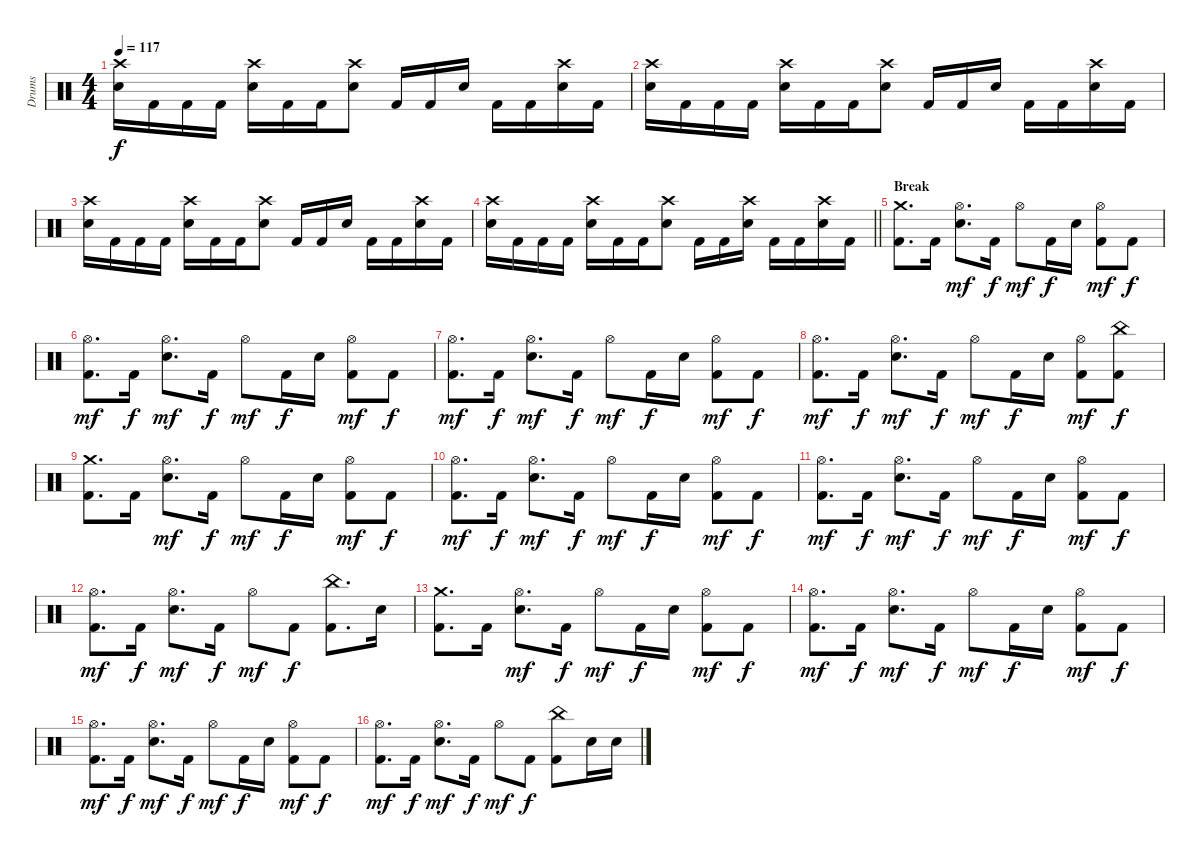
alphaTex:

\track ("Drums" "Drums") {instrument percussion}
\staff {score}
\articulation defaults
\ts (4 4)
\tempo 117
\clef neutral
\ks c
("Crash high (hit)" "Electric Snare (hit)").16{dy f} "Kick (hit) 2".16 "Kick (hit) 2".16 "Kick (hit) 2".16 ("Crash high (hit)" "Electric Snare (hit)").16 "Kick (hit) 2".16 "Kick (hit) 2".16 ("Crash high (hit)" "Electric Snare (hit)").8 "Kick (hit) 2".16 "Kick (hit) 2".16 "Electric Snare (hit)".16 "Kick (hit) 2".16 "Kick (hit) 2".16 ("Crash high (hit)" "Electric Snare (hit)").16 "Kick (hit) 2".16 |
("Crash high (hit)" "Electric Snare (hit)").16 "Kick (hit) 2".16 "Kick (hit) 2".16 "Kick (hit) 2".16 ("Crash high (hit)" "Electric Snare (hit)").16 "Kick (hit) 2".16 "Kick (hit) 2".16 ("Crash high (hit)" "Electric Snare (hit)").8 "Kick (hit) 2".16 "Kick (hit) 2".16 "Electric Snare (hit)".16 "Kick (hit) 2".16 "Kick (hit) 2".16 ("Crash high (hit)" "Electric Snare (hit)").16 "Kick (hit) 2".16 |
("Crash high (hit)" "Electric Snare (hit)").16 "Kick (hit) 2".16 "Kick (hit) 2".16 "Kick (hit) 2".16 ("Crash high (hit)" "Electric Snare (hit)").16 "Kick (hit) 2".16 "Kick (hit) 2".16 ("Crash high (hit)" "Electric Snare (hit)").8 "Kick (hit) 2".16 "Kick (hit) 2".16 "Electric Snare (hit)".16 "Kick (hit) 2".16 "Kick (hit) 2".16 ("Crash high (hit)" "Electric Snare (hit)").16 "Kick (hit) 2".16 |
\barLineRight lightlight
("Crash high (hit)" "Electric Snare (hit)").16 "Kick (hit) 2".16 "Kick (hit) 2".16 "Kick (hit) 2".16 ("Crash high (hit)" "Electric Snare (hit)").16 "Kick (hit) 2".16 "Kick (hit) 2".16 ("Crash high (hit)" "Electric Snare (hit)").8 "Kick (hit) 2".16 "Kick (hit) 2".16 ("Crash high (hit)" "Electric Snare (hit)").16 "Kick (hit) 2".16 "Kick (hit) 2".16 ("Crash high (hit)" "Electric Snare (hit)").16 "Kick (hit) 2".16 |
\section ("" "Break")
("Kick (hit) 2" "Crash medium (hit)").8{d} "Kick (hit) 2".16 ("Hi-Hat (open)" "Electric Snare (hit)").8{d dy mf} "Kick (hit) 2".16{dy f} "Hi-Hat (open)".8{dy mf} "Kick (hit) 2".16{dy f} "Electric Snare (hit)".16 ("Kick (hit) 2" "Hi-Hat (open)").8{dy mf} "Kick (hit) 2".8{dy f} |
("Kick (hit) 2" "Hi-Hat (open)").8{d dy mf} "Kick (hit) 2".16{dy f} ("Hi-Hat (open)" "Electric Snare (hit)").8{d dy mf} "Kick (hit) 2".16{dy f} "Hi-Hat (open)".8{dy mf} "Kick (hit) 2".16{dy f} "Electric Snare (hit)".16 ("Kick (hit) 2" "Hi-Hat (open)").8{dy mf} "Kick (hit) 2".8{dy f} |
("Kick (hit) 2" "Hi-Hat (open)").8{d dy mf} "Kick (hit) 2".16{dy f} ("Hi-Hat (open)" "Electric Snare (hit)").8{d dy mf} "Kick (hit) 2".16{dy f} "Hi-Hat (open)".8{dy mf} "Kick (hit) 2".16{dy f} "Electric Snare (hit)".16 ("Kick (hit) 2" "Hi-Hat (open)").8{dy mf} "Kick (hit) 2".8{dy f} |
("Kick (hit) 2" "Hi-Hat (open)").8{d dy mf} "Kick (hit) 2".16{dy f} ("Hi-Hat (open)" "Electric Snare (hit)").8{d dy mf} "Kick (hit) 2".16{dy f} "Hi-Hat (open)".8{dy mf} "Kick (hit) 2".16{dy f} "Electric Snare (hit)".16 ("Kick (hit) 2" "Hi-Hat (open)").8{dy mf} ("Kick (hit) 2" "China (hit)").8{dy f} |
("Kick (hit) 2" "Crash medium (hit)").8{d} "Kick (hit) 2".16 ("Hi-Hat (open)" "Electric Snare (hit)").8{d dy mf} "Kick (hit) 2".16{dy f} "Hi-Hat (open)".8{dy mf} "Kick (hit) 2".16{dy f} "Electric Snare (hit)".16 ("Kick (hit) 2" "Hi-Hat (open)").8{dy mf} "Kick (hit) 2".8{dy f} |
("Kick (hit) 2" "Hi-Hat (open)").8{d dy mf} "Kick (hit) 2".16{dy f} ("Hi-Hat (open)" "Electric Snare (hit)").8{d dy mf} "Kick (hit) 2".16{dy f} "Hi-Hat (open)".8{dy mf} "Kick (hit) 2".16{dy f} "Electric Snare (hit)".16 ("Kick (hit) 2" "Hi-Hat (open)").8{dy mf} "Kick (hit) 2".8{dy f} |
("Kick (hit) 2" "Hi-Hat (open)").8{d dy mf} "Kick (hit) 2".16{dy f} ("Hi-Hat (open)" "Electric Snare (hit)").8{d dy mf} "Kick (hit) 2".16{dy f} "Hi-Hat (open)".8{dy mf} "Kick (hit) 2".16{dy f} "Electric Snare (hit)".16 ("Kick (hit) 2" "Hi-Hat (open)").8{dy mf} "Kick (hit) 2".8{dy f} |
("Kick (hit) 2" "Hi-Hat (open)").8{d dy mf} "Kick (hit) 2".16{dy f} ("Hi-Hat (open)" "Electric Snare (hit)").8{d dy mf} "Kick (hit) 2".16{dy f} "Hi-Hat (open)".8{dy mf} "Kick (hit) 2".8{dy f} ("Kick (hit) 2" "China (hit)").8{d} "Electric Snare (hit)".16 |
("Kick (hit) 2" "Crash medium (hit)").8{d} "Kick (hit) 2".16 ("Hi-Hat (open)" "Electric Snare (hit)").8{d dy mf} "Kick (hit) 2".16{dy f} "Hi-Hat (open)".8{dy mf} "Kick (hit) 2".16{dy f} "Electric Snare (hit)".16 ("Kick (hit) 2" "Hi-Hat (open)").8{dy mf} "Kick (hit) 2".8{dy f} |
("Kick (hit) 2" "Hi-Hat (open)").8{d dy mf} "Kick (hit) 2".16{dy f} ("Hi-Hat (open)" "Electric Snare (hit)").8{d dy mf} "Kick (hit) 2".16{dy f} "Hi-Hat (open)".8{dy mf} "Kick (hit) 2".16{dy f} "Electric Snare (hit)".16 ("Kick (hit) 2" "Hi-Hat (open)").8{dy mf} "Kick (hit) 2".8{dy f} |
("Kick (hit) 2" "Hi-Hat (open)").8{d dy mf} "Kick (hit) 2".16{dy f} ("Hi-Hat (open)" "Electric Snare (hit)").8{d dy mf} "Kick (hit) 2".16{dy f} "Hi-Hat (open)".8{dy mf} "Kick (hit) 2".16{dy f} "Electric Snare (hit)".16 ("Kick (hit) 2" "Hi-Hat (open)").8{dy mf} "Kick (hit) 2".8{dy f} |
("Kick (hit) 2" "Hi-Hat (open)").8{d dy mf} "Kick (hit) 2".16{dy f} ("Hi-Hat (open)" "Electric Snare (hit)").8{d dy mf} "Kick (hit) 2".16{dy f} "Hi-Hat (open)".8{dy mf} "Kick (hit) 2".8{dy f} ("Kick (hit) 2" "China (hit)").8 "Electric Snare (hit)".16 "Electric Snare (hit)".16
